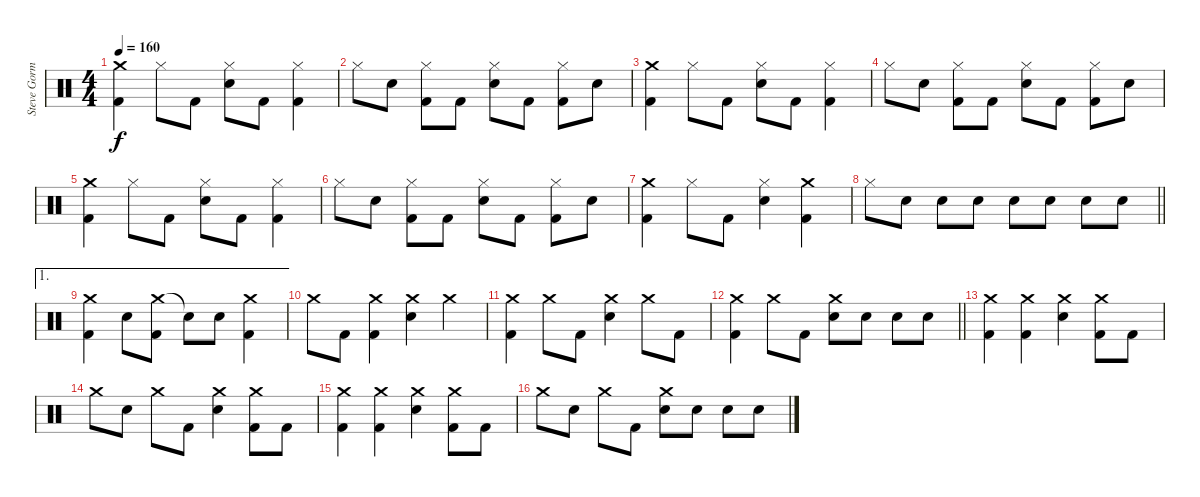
\track ("Steve Gorman " "Steve Gorm") {instrument percussion}
\staff {score}
\articulation defaults
\ts (4 4)
\tempo 160
\clef neutral
\ks c
("Crash medium (hit)" "Kick (hit) 2").4{dy f} "Hi-Hat (closed)".8 "Kick (hit) 2".8 ("Hi-Hat (closed)" "Snare (hit) 2").8 "Kick (hit) 2".8 ("Hi-Hat (closed)" "Kick (hit) 2").4 |
"Hi-Hat (closed)".8 "Snare (hit) 2".8 ("Hi-Hat (closed)" "Kick (hit) 2").8 "Kick (hit) 2".8 ("Hi-Hat (closed)" "Snare (hit) 2").8 "Kick (hit) 2".8 ("Hi-Hat (closed)" "Kick (hit) 2").8 "Snare (hit) 2".8 |
("Crash medium (hit)" "Kick (hit) 2").4 "Hi-Hat (closed)".8 "Kick (hit) 2".8 ("Hi-Hat (closed)" "Snare (hit) 2").8 "Kick (hit) 2".8 ("Hi-Hat (closed)" "Kick (hit) 2").4 |
"Hi-Hat (closed)".8 "Snare (hit) 2".8 ("Hi-Hat (closed)" "Kick (hit) 2").8 "Kick (hit) 2".8 ("Hi-Hat (closed)" "Snare (hit) 2").8 "Kick (hit) 2".8 ("Hi-Hat (closed)" "Kick (hit) 2").8 "Snare (hit) 2".8 |
("Crash medium (hit)" "Kick (hit) 2").4 "Hi-Hat (closed)".8 "Kick (hit) 2".8 ("Hi-Hat (closed)" "Snare (hit) 2").8 "Kick (hit) 2".8 ("Hi-Hat (closed)" "Kick (hit) 2").4 |
"Hi-Hat (closed)".8 "Snare (hit) 2".8 ("Hi-Hat (closed)" "Kick (hit) 2").8 "Kick (hit) 2".8 ("Hi-Hat (closed)" "Snare (hit) 2").8 "Kick (hit) 2".8 ("Hi-Hat (closed)" "Kick (hit) 2").8 "Snare (hit) 2".8 |
("Crash medium (hit)" "Kick (hit) 2").4 "Hi-Hat (closed)".8 "Kick (hit) 2".8 ("Hi-Hat (closed)" "Snare (hit) 2").4 ("Crash medium (hit)" "Kick (hit) 2").4 |
\barLineRight lightlight "Hi-Hat (closed)".8 "Snare (hit) 2".8 "Snare (hit) 2".8 "Snare (hit) 2".8 "Snare (hit) 2".8 "Snare (hit) 2".8 "Snare (hit) 2".8 "Snare (hit) 2".8
|
\ae 1
("Crash medium (hit)" "Kick (hit) 2").4 "Snare (hit) 2".8 ("Crash medium (hit)" "Kick (hit) 2").8 "Snare (hit)"{t}.8 "Snare (hit) 2".8 ("Crash medium (hit)" "Kick (hit) 2").4 |
"Crash medium (hit)".8 "Kick (hit) 2".8 ("Crash medium (hit)" "Kick (hit) 2").4 ("Crash medium (hit)" "Snare (hit) 2").4 "Crash medium (hit)".4 |
("Crash medium (hit)" "Kick (hit) 2").4 "Crash medium (hit)".8 "Kick (hit) 2".8 ("Crash medium (hit)" "Snare (hit) 2").4 "Crash medium (hit)".8 "Kick (hit) 2".8 |
\barLineRight lightlight
("Crash medium (hit)" "Kick (hit) 2").4 "Crash medium (hit)".8 "Kick (hit) 2".8 ("Crash medium (hit)" "Snare (hit) 2").8 "Snare (hit) 2".8 "Snare (hit) 2".8 "Snare (hit) 2".8 |
("Crash medium (hit)" "Kick (hit) 2").4 ("Crash medium (hit)" "Kick (hit) 2").4 ("Crash medium (hit)" "Snare (hit) 2").4 ("Crash medium (hit)" "Kick (hit) 2").8 "Kick (hit) 2".8 |
"Crash medium (hit)".8 "Snare (hit) 2".8 "Crash medium (hit)".8 "Kick (hit) 2".8 ("Crash medium (hit)" "Snare (hit) 2").4 ("Crash medium (hit)" "Kick (hit) 2").8 "Kick (hit) 2".8 |
("Crash medium (hit)" "Kick (hit) 2").4 ("Crash medium (hit)" "Kick (hit) 2").4 ("Crash medium (hit)" "Snare (hit) 2").4 ("Crash medium (hit)" "Kick (hit) 2").8 "Kick (hit) 2".8 |
"Crash medium (hit)".8 "Snare (hit) 2".8 "Crash medium (hit)".8 "Kick (hit) 2".8 ("Crash medium (hit)" "Snare (hit) 2").8 "Snare (hit) 2".8 "Snare (hit) 2".8 "Snare (hit) 2".8
